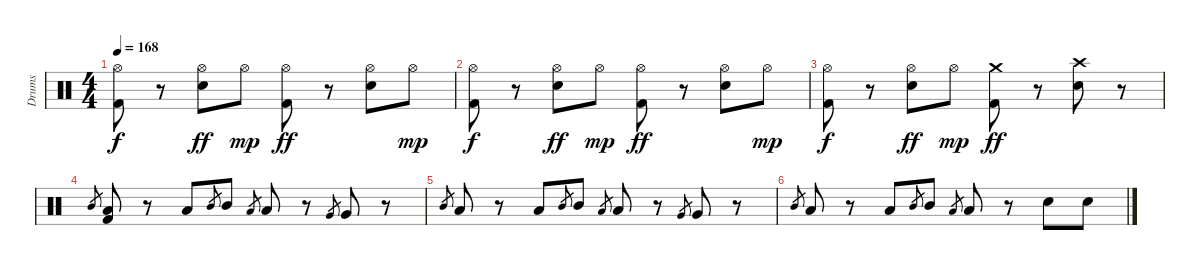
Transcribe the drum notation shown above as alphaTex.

\track ("Drums" "Drums") {instrument percussion}
\staff {score}
\articulation defaults
\ts (4 4)
\tempo 168
\clef neutral
\ks c
("Hi-Hat (open)" "Kick (hit) 2").8{dy f} r.8 ("Hi-Hat (open)" "Electric Snare (hit)").8{dy ff} "Hi-Hat (open)".8{dy mp} ("Hi-Hat (open)" "Kick (hit) 2").8{dy ff} r.8 ("Hi-Hat (open)" "Electric Snare (hit)").8 "Hi-Hat (open)".8{dy mp} |
("Hi-Hat (open)" "Kick (hit) 2").8{dy f} r.8 ("Hi-Hat (open)" "Electric Snare (hit)").8{dy ff} "Hi-Hat (open)".8{dy mp} ("Hi-Hat (open)" "Kick (hit) 2").8{dy ff} r.8 ("Hi-Hat (open)" "Electric Snare (hit)").8 "Hi-Hat (open)".8{dy mp} |
("Hi-Hat (open)" "Kick (hit) 2").8{dy f} r.8 ("Hi-Hat (open)" "Electric Snare (hit)").8{dy ff} "Hi-Hat (open)".8{dy mp} ("Crash medium (hit)" "Kick (hit) 2").8{dy ff} r.8 ("Crash high (hit)" "Electric Snare (hit)").8 r.8 |
"Mid Tom (hit)".8{gr} ("Low Tom (hit)" "Kick (hit) 2").8 r.8 "Low Tom (hit)".8 "Mid Tom (hit)".8{gr} "Mid Tom (hit)".8 "Low Tom (hit)".8{gr} "Low Tom (hit)".8 r.8 "Very Low Tom (hit)".8{gr} "Very Low Tom (hit)".8 r.8 |
"Mid Tom (hit)".8{gr} "Low Tom (hit)".8 r.8 "Low Tom (hit)".8 "Mid Tom (hit)".8{gr} "Mid Tom (hit)".8 "Low Tom (hit)".8{gr} "Low Tom (hit)".8 r.8 "Very Low Tom (hit)".8{gr} "Very Low Tom (hit)".8 r.8 |
"Mid Tom (hit)".8{gr} "Low Tom (hit)".8 r.8 "Low Tom (hit)".8 "Mid Tom (hit)".8{gr} "Mid Tom (hit)".8 "Low Tom (hit)".8{gr} "Low Tom (hit)".8 r.8 "Electric Snare (hit)".8 "Electric Snare (hit)".8
